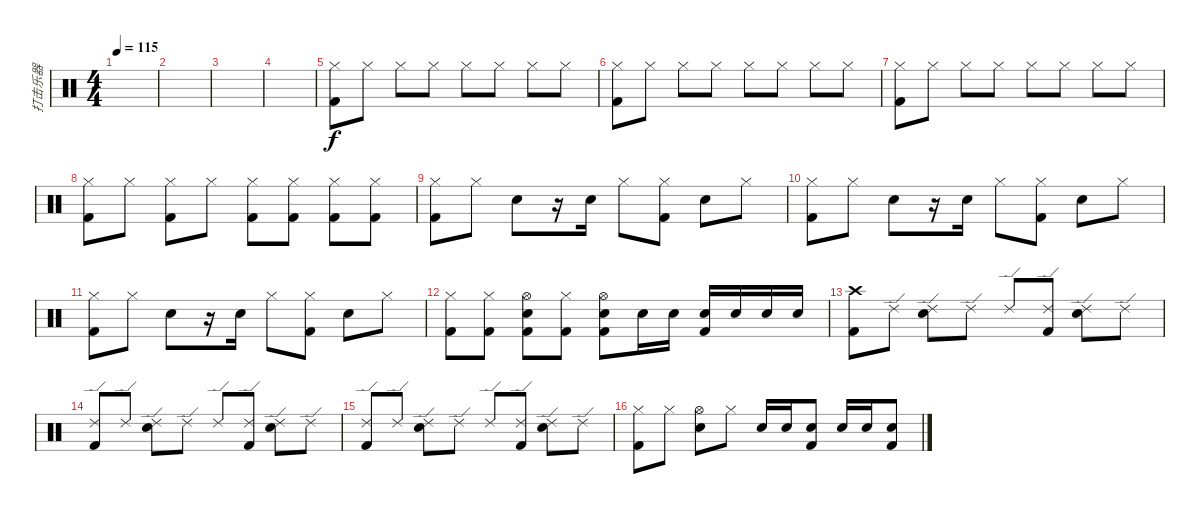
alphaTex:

\track ("打击乐器" "打击乐器") {instrument percussion}
\staff {score}
\articulation defaults
\ts (4 4)
\tempo 115
\clef neutral
\ks c
|
|
|
|
("Hi-Hat (closed)" "Kick (hit) 2").8 "Hi-Hat (closed)".8 "Hi-Hat (closed)".8 "Hi-Hat (closed)".8 "Hi-Hat (closed)".8 "Hi-Hat (closed)".8 "Hi-Hat (closed)".8 "Hi-Hat (closed)".8 |
("Hi-Hat (closed)" "Kick (hit) 2").8 "Hi-Hat (closed)".8 "Hi-Hat (closed)".8 "Hi-Hat (closed)".8 "Hi-Hat (closed)".8 "Hi-Hat (closed)".8 "Hi-Hat (closed)".8 "Hi-Hat (closed)".8 |
("Hi-Hat (closed)" "Kick (hit) 2").8 "Hi-Hat (closed)".8 "Hi-Hat (closed)".8 "Hi-Hat (closed)".8 "Hi-Hat (closed)".8 "Hi-Hat (closed)".8 "Hi-Hat (closed)".8 "Hi-Hat (closed)".8 |
("Hi-Hat (closed)" "Kick (hit) 2").8 "Hi-Hat (closed)".8 ("Hi-Hat (closed)" "Kick (hit) 2").8 "Hi-Hat (closed)".8 ("Hi-Hat (closed)" "Kick (hit) 2").8 ("Hi-Hat (closed)" "Kick (hit) 2").8 ("Hi-Hat (closed)" "Kick (hit) 2").8 ("Hi-Hat (closed)" "Kick (hit) 2").8 |
("Hi-Hat (closed)" "Kick (hit) 2").8 "Hi-Hat (closed)".8 "Electric Snare (hit)".8 r.16 "Electric Snare (hit)".16{volume 10} "Hi-Hat (closed)".8{volume 13} ("Hi-Hat (closed)" "Kick (hit) 2").8 "Electric Snare (hit)".8 "Hi-Hat (closed)".8 |
("Hi-Hat (closed)" "Kick (hit) 2").8 "Hi-Hat (closed)".8 "Electric Snare (hit)".8 r.16 "Electric Snare (hit)".16{volume 10} "Hi-Hat (closed)".8{volume 13} ("Hi-Hat (closed)" "Kick (hit) 2").8 "Electric Snare (hit)".8 "Hi-Hat (closed)".8 |
("Hi-Hat (closed)" "Kick (hit) 2").8 "Hi-Hat (closed)".8 "Electric Snare (hit)".8 r.16 "Electric Snare (hit)".16{volume 10} "Hi-Hat (closed)".8{volume 13} ("Hi-Hat (closed)" "Kick (hit) 2").8 "Electric Snare (hit)".8 "Hi-Hat (closed)".8 |
("Hi-Hat (closed)" "Kick (hit) 2").8 ("Hi-Hat (closed)" "Kick (hit) 2").8 ("Hi-Hat (open)" "Electric Snare (hit)" "Kick (hit) 2").8 ("Hi-Hat (closed)" "Kick (hit) 2").8 ("Hi-Hat (open)" "Electric Snare (hit)" "Kick (hit) 2").8 "Electric Snare (hit)".16 "Electric Snare (hit)".16 ("Electric Snare (hit)" "Kick (hit) 2").16 "Electric Snare (hit)".16 "Electric Snare (hit)".16 "Electric Snare (hit)".16 |
("Crash high (hit)" "Kick (hit) 2").8 "Ride (edge) 2".8 ("Ride (edge) 2" "Electric Snare (hit)").8 "Ride (edge) 2".8 "Ride (edge) 2".8 ("Ride (edge) 2" "Kick (hit) 2").8 ("Ride (edge) 2" "Electric Snare (hit)").8 "Ride (edge) 2".8 |
("Ride (edge) 2" "Kick (hit) 2").8 "Ride (edge) 2".8 ("Ride (edge) 2" "Electric Snare (hit)").8 "Ride (edge) 2".8 "Ride (edge) 2".8 ("Ride (edge) 2" "Kick (hit) 2").8 ("Ride (edge) 2" "Electric Snare (hit)").8 "Ride (edge) 2".8 |
("Ride (edge) 2" "Kick (hit) 2").8 "Ride (edge) 2".8 ("Ride (edge) 2" "Electric Snare (hit)").8 "Ride (edge) 2".8 "Ride (edge) 2".8 ("Ride (edge) 2" "Kick (hit) 2").8 ("Ride (edge) 2" "Electric Snare (hit)").8 "Ride (edge) 2".8 |
("Hi-Hat (closed)" "Kick (hit) 2").8 "Hi-Hat (closed)".8 ("Hi-Hat (open)" "Electric Snare (hit)").8 "Hi-Hat (closed)".8 "Electric Snare (hit)".16 "Electric Snare (hit)".16 ("Electric Snare (hit)" "Kick (hit) 2").8 "Electric Snare (hit)".16 "Electric Snare (hit)".16 ("Electric Snare (hit)" "Kick (hit) 2").8
